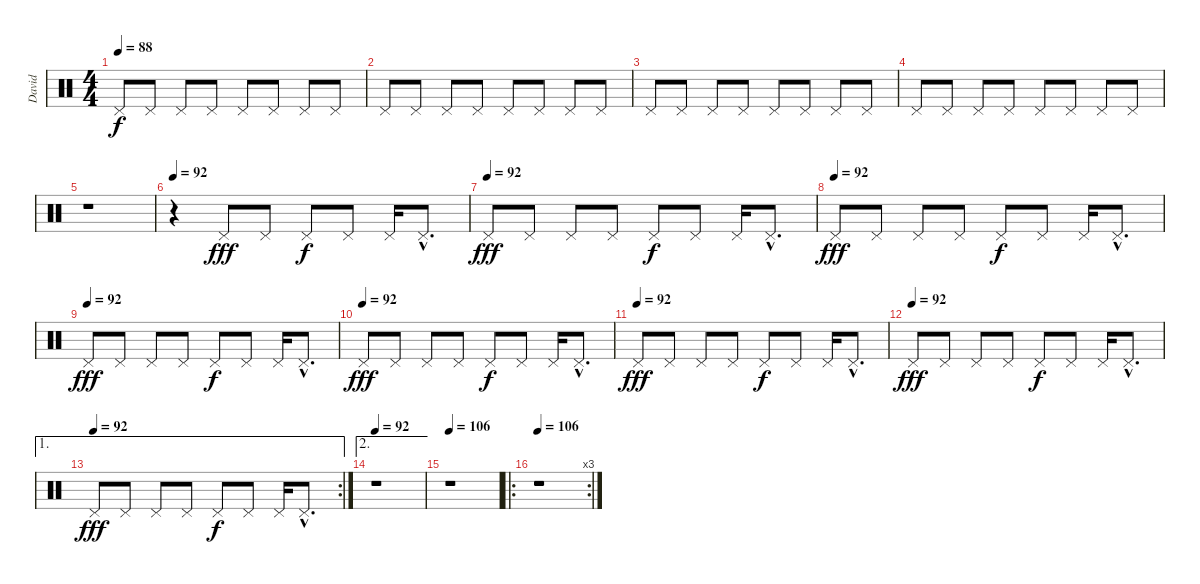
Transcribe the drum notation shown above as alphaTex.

\track ("David" "David") {instrument percussion}
\staff {score}
\articulation defaults
\ts (4 4)
\tempo 88
\clef neutral
\ks c "Pedal Hi-Hat (hit)".8{dy f} "Pedal Hi-Hat (hit)".8 "Pedal Hi-Hat (hit)".8 "Pedal Hi-Hat (hit)".8 "Pedal Hi-Hat (hit)".8 "Pedal Hi-Hat (hit)".8 "Pedal Hi-Hat (hit)".8 "Pedal Hi-Hat (hit)".8
|
"Pedal Hi-Hat (hit)".8 "Pedal Hi-Hat (hit)".8 "Pedal Hi-Hat (hit)".8 "Pedal Hi-Hat (hit)".8 "Pedal Hi-Hat (hit)".8 "Pedal Hi-Hat (hit)".8 "Pedal Hi-Hat (hit)".8 "Pedal Hi-Hat (hit)".8 |
"Pedal Hi-Hat (hit)".8 "Pedal Hi-Hat (hit)".8 "Pedal Hi-Hat (hit)".8 "Pedal Hi-Hat (hit)".8 "Pedal Hi-Hat (hit)".8 "Pedal Hi-Hat (hit)".8 "Pedal Hi-Hat (hit)".8 "Pedal Hi-Hat (hit)".8 |
"Pedal Hi-Hat (hit)".8 "Pedal Hi-Hat (hit)".8 "Pedal Hi-Hat (hit)".8 "Pedal Hi-Hat (hit)".8 "Pedal Hi-Hat (hit)".8 "Pedal Hi-Hat (hit)".8 "Pedal Hi-Hat (hit)".8 "Pedal Hi-Hat (hit)".8 |
r.1 |
\tempo 92
r.4 "Pedal Hi-Hat (hit)".8{dy fff} "Pedal Hi-Hat (hit)".8 "Pedal Hi-Hat (hit)".8{dy f} "Pedal Hi-Hat (hit)".8 "Pedal Hi-Hat (hit)".16 "Pedal Hi-Hat (hit)"{hac}.8{d} |
\tempo (92)
"Pedal Hi-Hat (hit)".8{dy fff} "Pedal Hi-Hat (hit)".8 "Pedal Hi-Hat (hit)".8 "Pedal Hi-Hat (hit)".8 "Pedal Hi-Hat (hit)".8{dy f} "Pedal Hi-Hat (hit)".8 "Pedal Hi-Hat (hit)".16 "Pedal Hi-Hat (hit)"{hac}.8{d} |
\tempo (92)
"Pedal Hi-Hat (hit)".8{dy fff} "Pedal Hi-Hat (hit)".8 "Pedal Hi-Hat (hit)".8 "Pedal Hi-Hat (hit)".8 "Pedal Hi-Hat (hit)".8{dy f} "Pedal Hi-Hat (hit)".8 "Pedal Hi-Hat (hit)".16 "Pedal Hi-Hat (hit)"{hac}.8{d} |
\tempo (92)
"Pedal Hi-Hat (hit)".8{dy fff} "Pedal Hi-Hat (hit)".8 "Pedal Hi-Hat (hit)".8 "Pedal Hi-Hat (hit)".8 "Pedal Hi-Hat (hit)".8{dy f} "Pedal Hi-Hat (hit)".8 "Pedal Hi-Hat (hit)".16 "Pedal Hi-Hat (hit)"{hac}.8{d} |
\tempo (92)
"Pedal Hi-Hat (hit)".8{dy fff} "Pedal Hi-Hat (hit)".8 "Pedal Hi-Hat (hit)".8 "Pedal Hi-Hat (hit)".8 "Pedal Hi-Hat (hit)".8{dy f} "Pedal Hi-Hat (hit)".8 "Pedal Hi-Hat (hit)".16 "Pedal Hi-Hat (hit)"{hac}.8{d} |
\tempo (92)
"Pedal Hi-Hat (hit)".8{dy fff} "Pedal Hi-Hat (hit)".8 "Pedal Hi-Hat (hit)".8 "Pedal Hi-Hat (hit)".8 "Pedal Hi-Hat (hit)".8{dy f} "Pedal Hi-Hat (hit)".8 "Pedal Hi-Hat (hit)".16 "Pedal Hi-Hat (hit)"{hac}.8{d} |
\tempo (92)
"Pedal Hi-Hat (hit)".8{dy fff} "Pedal Hi-Hat (hit)".8 "Pedal Hi-Hat (hit)".8 "Pedal Hi-Hat (hit)".8 "Pedal Hi-Hat (hit)".8{dy f} "Pedal Hi-Hat (hit)".8 "Pedal Hi-Hat (hit)".16 "Pedal Hi-Hat (hit)"{hac}.8{d} |
\ae 1
\rc 2
\tempo (92)
"Pedal Hi-Hat (hit)".8{dy fff} "Pedal Hi-Hat (hit)".8 "Pedal Hi-Hat (hit)".8 "Pedal Hi-Hat (hit)".8 "Pedal Hi-Hat (hit)".8{dy f} "Pedal Hi-Hat (hit)".8 "Pedal Hi-Hat (hit)".16 "Pedal Hi-Hat (hit)"{hac}.8{d} |
\ae 2
\tempo 92
r.1 |
\tempo 106
r.1 |
\ro
\rc 3
\tempo 106
r.1
